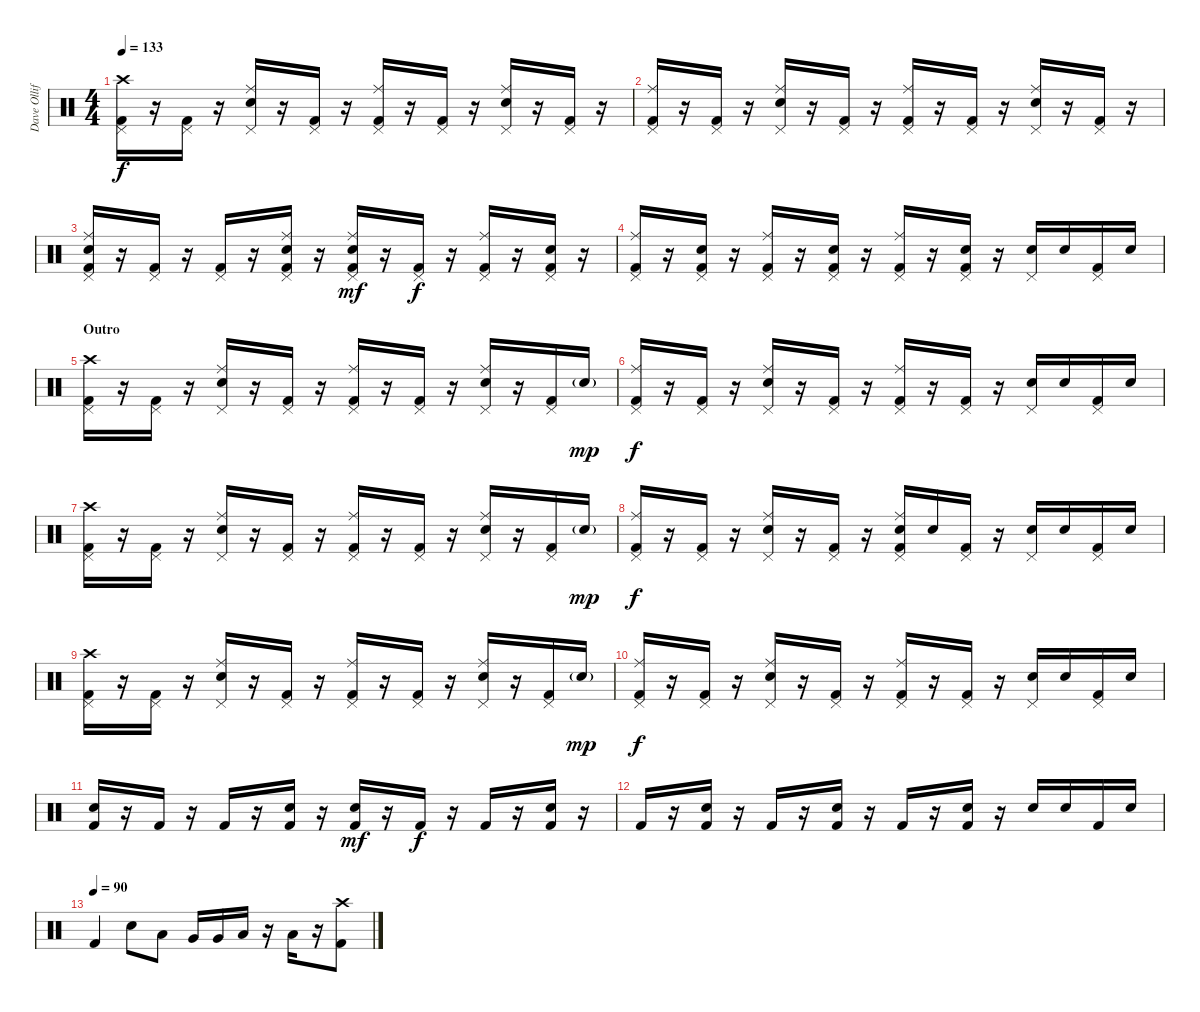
\track ("Dave Olliffe - Drums" "Dave Ollif") {instrument percussion}
\staff {score}
\articulation defaults
\ts (4 4)
\tempo 133
\clef neutral
\ks c
("Crash high (hit)" "Pedal Hi-Hat (hit)" "Kick (hit) 2").16{dy f} r.16 ("Pedal Hi-Hat (hit)" "Kick (hit) 2").16 r.16 ("Ride (middle)" "Pedal Hi-Hat (hit)" "Snare (hit) 2").16 r.16 ("Pedal Hi-Hat (hit)" "Kick (hit) 2").16 r.16 ("Ride (middle)" "Pedal Hi-Hat (hit)" "Kick (hit) 2").16 r.16 ("Pedal Hi-Hat (hit)" "Kick (hit) 2").16 r.16 ("Ride (middle)" "Pedal Hi-Hat (hit)" "Snare (hit) 2").16 r.16 ("Pedal Hi-Hat (hit)" "Kick (hit) 2").16 r.16 |
("Ride (middle)" "Pedal Hi-Hat (hit)" "Kick (hit) 2").16 r.16 ("Pedal Hi-Hat (hit)" "Kick (hit) 2").16 r.16 ("Ride (middle)" "Pedal Hi-Hat (hit)" "Snare (hit) 2").16 r.16 ("Pedal Hi-Hat (hit)" "Kick (hit) 2").16 r.16 ("Ride (middle)" "Pedal Hi-Hat (hit)" "Kick (hit) 2").16 r.16 ("Pedal Hi-Hat (hit)" "Kick (hit) 2").16 r.16 ("Ride (middle)" "Pedal Hi-Hat (hit)" "Snare (hit) 2").16 r.16 ("Pedal Hi-Hat (hit)" "Kick (hit) 2").16 r.16 |
("Ride (middle)" "Pedal Hi-Hat (hit)" "Snare (hit) 2" "Kick (hit) 2").16 r.16 ("Pedal Hi-Hat (hit)" "Kick (hit) 2").16 r.16 ("Pedal Hi-Hat (hit)" "Kick (hit) 2").16 r.16 ("Ride (middle)" "Pedal Hi-Hat (hit)" "Snare (hit) 2" "Kick (hit) 2").16 r.16 ("Ride (middle)" "Pedal Hi-Hat (hit)" "Snare (hit) 2" "Kick (hit) 2").16{dy mf} r.16 ("Pedal Hi-Hat (hit)" "Kick (hit) 2").16{dy f} r.16 ("Ride (middle)" "Pedal Hi-Hat (hit)" "Kick (hit) 2").16 r.16 ("Pedal Hi-Hat (hit)" "Snare (hit) 2" "Kick (hit) 2").16 r.16 |
("Ride (middle)" "Pedal Hi-Hat (hit)" "Kick (hit) 2").16 r.16 ("Pedal Hi-Hat (hit)" "Snare (hit) 2" "Kick (hit) 2").16 r.16 ("Ride (middle)" "Pedal Hi-Hat (hit)" "Kick (hit) 2").16 r.16 ("Pedal Hi-Hat (hit)" "Snare (hit) 2" "Kick (hit) 2").16 r.16 ("Ride (middle)" "Pedal Hi-Hat (hit)" "Kick (hit) 2").16 r.16 ("Pedal Hi-Hat (hit)" "Snare (hit) 2" "Kick (hit) 2").16 r.16 ("Pedal Hi-Hat (hit)" "Snare (hit) 2").16 "Snare (hit) 2".16 ("Pedal Hi-Hat (hit)" "Kick (hit) 2").16 "Snare (hit) 2".16 |
\section ("" "Outro")
("Crash high (hit)" "Pedal Hi-Hat (hit)" "Kick (hit) 2").16 r.16 ("Pedal Hi-Hat (hit)" "Kick (hit) 2").16 r.16 ("Ride (middle)" "Pedal Hi-Hat (hit)" "Snare (hit) 2").16 r.16 ("Pedal Hi-Hat (hit)" "Kick (hit) 2").16 r.16 ("Ride (middle)" "Pedal Hi-Hat (hit)" "Kick (hit) 2").16 r.16 ("Pedal Hi-Hat (hit)" "Kick (hit) 2").16 r.16 ("Ride (middle)" "Pedal Hi-Hat (hit)" "Snare (hit) 2").16 r.16 ("Pedal Hi-Hat (hit)" "Kick (hit) 2").16 "Snare (hit) 2"{g}.16{dy mp} |
("Ride (middle)" "Pedal Hi-Hat (hit)" "Kick (hit) 2").16{dy f} r.16 ("Pedal Hi-Hat (hit)" "Kick (hit) 2").16 r.16 ("Ride (middle)" "Pedal Hi-Hat (hit)" "Snare (hit) 2").16 r.16 ("Pedal Hi-Hat (hit)" "Kick (hit) 2").16 r.16 ("Ride (middle)" "Pedal Hi-Hat (hit)" "Kick (hit) 2").16 r.16 ("Pedal Hi-Hat (hit)" "Kick (hit) 2").16 r.16 ("Pedal Hi-Hat (hit)" "Snare (hit) 2").16 "Snare (hit) 2".16 ("Pedal Hi-Hat (hit)" "Kick (hit) 2").16 "Snare (hit) 2".16 |
("Crash high (hit)" "Pedal Hi-Hat (hit)" "Kick (hit) 2").16 r.16 ("Pedal Hi-Hat (hit)" "Kick (hit) 2").16 r.16 ("Ride (middle)" "Pedal Hi-Hat (hit)" "Snare (hit) 2").16 r.16 ("Pedal Hi-Hat (hit)" "Kick (hit) 2").16 r.16 ("Ride (middle)" "Pedal Hi-Hat (hit)" "Kick (hit) 2").16 r.16 ("Pedal Hi-Hat (hit)" "Kick (hit) 2").16 r.16 ("Ride (middle)" "Pedal Hi-Hat (hit)" "Snare (hit) 2").16 r.16 ("Pedal Hi-Hat (hit)" "Kick (hit) 2").16 "Snare (hit) 2"{g}.16{dy mp} |
("Ride (middle)" "Pedal Hi-Hat (hit)" "Kick (hit) 2").16{dy f} r.16 ("Pedal Hi-Hat (hit)" "Kick (hit) 2").16 r.16 ("Ride (middle)" "Pedal Hi-Hat (hit)" "Snare (hit) 2").16 r.16 ("Pedal Hi-Hat (hit)" "Kick (hit) 2").16 r.16 ("Ride (middle)" "Pedal Hi-Hat (hit)" "Snare (hit) 2" "Kick (hit) 2").16 "Snare (hit) 2".16 ("Pedal Hi-Hat (hit)" "Kick (hit) 2").16 r.16 ("Pedal Hi-Hat (hit)" "Snare (hit) 2").16 "Snare (hit) 2".16 ("Pedal Hi-Hat (hit)" "Kick (hit) 2").16 "Snare (hit) 2".16 |
("Crash high (hit)" "Pedal Hi-Hat (hit)" "Kick (hit) 2").16 r.16 ("Pedal Hi-Hat (hit)" "Kick (hit) 2").16 r.16 ("Ride (middle)" "Pedal Hi-Hat (hit)" "Snare (hit) 2").16 r.16 ("Pedal Hi-Hat (hit)" "Kick (hit) 2").16 r.16 ("Ride (middle)" "Pedal Hi-Hat (hit)" "Kick (hit) 2").16 r.16 ("Pedal Hi-Hat (hit)" "Kick (hit) 2").16 r.16 ("Ride (middle)" "Pedal Hi-Hat (hit)" "Snare (hit) 2").16 r.16 ("Pedal Hi-Hat (hit)" "Kick (hit) 2").16 "Snare (hit) 2"{g}.16{dy mp} |
("Ride (middle)" "Pedal Hi-Hat (hit)" "Kick (hit) 2").16{dy f} r.16 ("Pedal Hi-Hat (hit)" "Kick (hit) 2").16 r.16 ("Ride (middle)" "Pedal Hi-Hat (hit)" "Snare (hit) 2").16 r.16 ("Pedal Hi-Hat (hit)" "Kick (hit) 2").16 r.16 ("Ride (middle)" "Pedal Hi-Hat (hit)" "Kick (hit) 2").16 r.16 ("Pedal Hi-Hat (hit)" "Kick (hit) 2").16 r.16 ("Pedal Hi-Hat (hit)" "Snare (hit) 2").16 "Snare (hit) 2".16 ("Pedal Hi-Hat (hit)" "Kick (hit) 2").16 "Snare (hit) 2".16 |
("Snare (hit) 2" "Kick (hit) 2").16 r.16 "Kick (hit) 2".16 r.16 "Kick (hit) 2".16 r.16 ("Snare (hit) 2" "Kick (hit) 2").16 r.16 ("Snare (hit) 2" "Kick (hit) 2").16{dy mf} r.16 "Kick (hit) 2".16{dy f} r.16 "Kick (hit) 2".16 r.16 ("Snare (hit) 2" "Kick (hit) 2").16 r.16 |
"Kick (hit) 2".16 r.16 ("Snare (hit) 2" "Kick (hit) 2").16 r.16 "Kick (hit) 2".16 r.16 ("Snare (hit) 2" "Kick (hit) 2").16 r.16 "Kick (hit) 2".16 r.16 ("Snare (hit) 2" "Kick (hit) 2").16 r.16 "Snare (hit) 2".16 "Snare (hit) 2".16 "Kick (hit) 2".16 "Snare (hit) 2".16 |
\tempo (90)
"Kick (hit) 2".4 "Snare (hit) 2".8 "Low Tom (hit)".8 "Very Low Tom (hit)".16 "Very Low Tom (hit)".16 "Low Floor Tom (hit)".16 r.16 "Low Floor Tom (hit)".16 r.16 ("Crash high (hit)" "Kick (hit) 2").8
